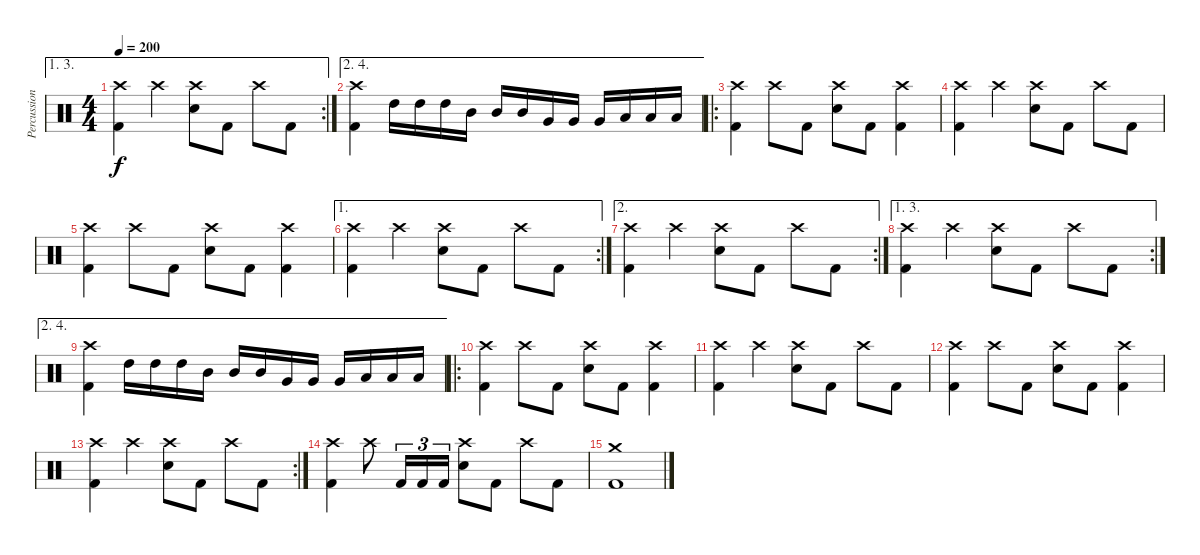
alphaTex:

\track ("Percussion" "Percussion") {instrument percussion}
\staff {score}
\articulation defaults
\ae (1 3)
\rc 2
\ts (4 4)
\tempo 200
\clef neutral
\ks c
("Crash high (hit)" "Kick (hit) 2").4{dy f} "Crash high (hit)".4 ("Crash high (hit)" "Electric Snare (hit)").8 "Kick (hit) 2".8 "Crash high (hit)".8 "Kick (hit) 2".8 |
\ae (2 4)
("Crash high (hit)" "Kick (hit) 2").4 "High Tom (hit)".16 "High Tom (hit)".16 "High Tom (hit)".16 "Mid Tom (hit)".16 "Mid Tom (hit)".16 "Mid Tom (hit)".16 "Very Low Tom (hit)".16 "Very Low Tom (hit)".16 "Very Low Tom (hit)".16 "Low Floor Tom (hit)".16 "Low Floor Tom (hit)".16 "Low Floor Tom (hit)".16 |
\ro
("Crash high (hit)" "Kick (hit) 2").4 "Crash high (hit)".8 "Kick (hit) 2".8 ("Crash high (hit)" "Electric Snare (hit)").8 "Kick (hit) 2".8 ("Crash high (hit)" "Kick (hit) 2").4 |
("Crash high (hit)" "Kick (hit) 2").4 "Crash high (hit)".4 ("Crash high (hit)" "Electric Snare (hit)").8 "Kick (hit) 2".8 "Crash high (hit)".8 "Kick (hit) 2".8 |
("Crash high (hit)" "Kick (hit) 2").4 "Crash high (hit)".8 "Kick (hit) 2".8 ("Crash high (hit)" "Electric Snare (hit)").8 "Kick (hit) 2".8 ("Crash high (hit)" "Kick (hit) 2").4 |
\ae 1
\rc 2
("Crash high (hit)" "Kick (hit) 2").4 "Crash high (hit)".4 ("Crash high (hit)" "Electric Snare (hit)").8 "Kick (hit) 2".8 "Crash high (hit)".8 "Kick (hit) 2".8 |
\ae 2
\rc 2
("Crash high (hit)" "Kick (hit) 2").4 "Crash high (hit)".4 ("Crash high (hit)" "Electric Snare (hit)").8 "Kick (hit) 2".8 "Crash high (hit)".8 "Kick (hit) 2".8 |
\ae (1 3)
\rc 2
("Crash high (hit)" "Kick (hit) 2").4 "Crash high (hit)".4 ("Crash high (hit)" "Electric Snare (hit)").8 "Kick (hit) 2".8 "Crash high (hit)".8 "Kick (hit) 2".8 |
\ae (2 4)
("Crash high (hit)" "Kick (hit) 2").4 "High Tom (hit)".16 "High Tom (hit)".16 "High Tom (hit)".16 "Mid Tom (hit)".16 "Mid Tom (hit)".16 "Mid Tom (hit)".16 "Very Low Tom (hit)".16 "Very Low Tom (hit)".16 "Very Low Tom (hit)".16 "Low Floor Tom (hit)".16 "Low Floor Tom (hit)".16 "Low Floor Tom (hit)".16 |
\ro
("Crash high (hit)" "Kick (hit) 2").4 "Crash high (hit)".8 "Kick (hit) 2".8 ("Crash high (hit)" "Electric Snare (hit)").8 "Kick (hit) 2".8 ("Crash high (hit)" "Kick (hit) 2").4 |
("Crash high (hit)" "Kick (hit) 2").4 "Crash high (hit)".4 ("Crash high (hit)" "Electric Snare (hit)").8 "Kick (hit) 2".8 "Crash high (hit)".8 "Kick (hit) 2".8 |
("Crash high (hit)" "Kick (hit) 2").4 "Crash high (hit)".8 "Kick (hit) 2".8 ("Crash high (hit)" "Electric Snare (hit)").8 "Kick (hit) 2".8 ("Crash high (hit)" "Kick (hit) 2").4 |
\rc 2
("Crash high (hit)" "Kick (hit) 2").4 "Crash high (hit)".4 ("Crash high (hit)" "Electric Snare (hit)").8 "Kick (hit) 2".8 "Crash high (hit)".8 "Kick (hit) 2".8 |
("Crash high (hit)" "Kick (hit) 2").4 "Crash high (hit)".8 "Kick (hit) 2".16{tu (3 2)} "Kick (hit) 2".16{tu (3 2)} "Kick (hit) 2".16{tu (3 2)} ("Crash high (hit)" "Electric Snare (hit)").8 "Kick (hit) 2".8 "Crash high (hit)".8 "Kick (hit) 2".8 |
("Crash medium (hit)" "Kick (hit) 2").1
